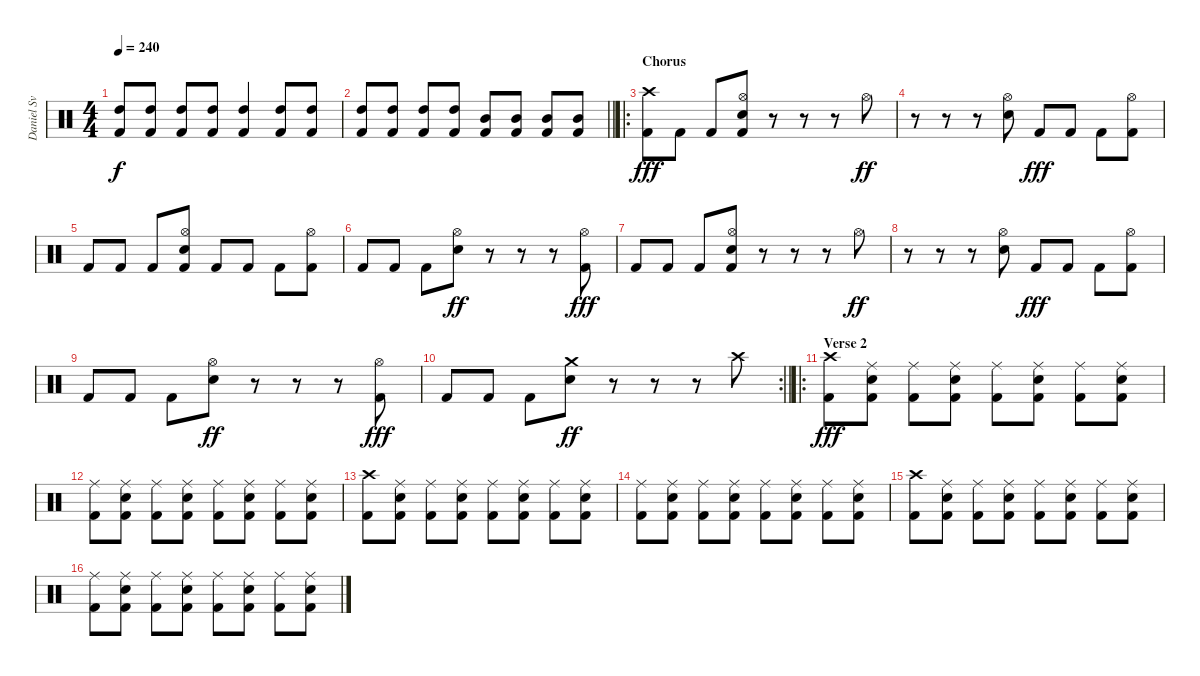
\track (" Daniel Svensson" " Daniel Sv") {instrument percussion}
\staff {score}
\articulation defaults
\ts (4 4)
\tempo 240
\clef neutral
\ks c
("High Tom (hit)" "Kick (hit) 2").8{dy f} ("High Tom (hit)" "Kick (hit) 2").8 ("High Tom (hit)" "Kick (hit) 2").8 ("High Tom (hit)" "Kick (hit) 2").8 ("High Tom (hit)" "Kick (hit) 2").4 ("High Tom (hit)" "Kick (hit) 2").8 ("High Tom (hit)" "Kick (hit) 2").8 |
\barLineRight lightlight
("High Tom (hit)" "Kick (hit) 2").8 ("High Tom (hit)" "Kick (hit) 2").8 ("High Tom (hit)" "Kick (hit) 2").8 ("High Tom (hit)" "Kick (hit) 2").8 ("Mid Tom (hit)" "Kick (hit) 2").8 ("Mid Tom (hit)" "Kick (hit) 2").8 ("Mid Tom (hit)" "Kick (hit) 2").8 ("Mid Tom (hit)" "Kick (hit) 2").8 |
\ro
\section ("" "Chorus")
("Crash high (hit)" "Kick (hit) 2").8{dy fff} "Kick (hit) 2".8 "Kick (hit) 2".8 ("Hi-Hat (open)" "Electric Snare (hit)" "Kick (hit) 2").8 r.8 r.8 r.8 "Hi-Hat (open)".8{dy ff} |
r.8 r.8 r.8 ("Hi-Hat (open)" "Electric Snare (hit)").8 "Kick (hit) 2".8{dy fff} "Kick (hit) 2".8 "Kick (hit) 2".8 ("Hi-Hat (open)" "Kick (hit) 2").8 |
"Kick (hit) 2".8 "Kick (hit) 2".8 "Kick (hit) 2".8 ("Hi-Hat (open)" "Electric Snare (hit)" "Kick (hit) 2").8 "Kick (hit) 2".8 "Kick (hit) 2".8 "Kick (hit) 2".8 ("Hi-Hat (open)" "Kick (hit) 2").8 |
"Kick (hit) 2".8 "Kick (hit) 2".8 "Kick (hit) 2".8 ("Hi-Hat (open)" "Electric Snare (hit)").8{dy ff} r.8 r.8 r.8 ("Hi-Hat (open)" "Kick (hit) 2").8{dy fff} |
"Kick (hit) 2".8 "Kick (hit) 2".8 "Kick (hit) 2".8 ("Hi-Hat (open)" "Electric Snare (hit)" "Kick (hit) 2").8 r.8 r.8 r.8 "Hi-Hat (open)".8{dy ff} |
r.8 r.8 r.8 ("Hi-Hat (open)" "Electric Snare (hit)").8 "Kick (hit) 2".8{dy fff} "Kick (hit) 2".8 "Kick (hit) 2".8 ("Hi-Hat (open)" "Kick (hit) 2").8 |
"Kick (hit) 2".8 "Kick (hit) 2".8 "Kick (hit) 2".8 ("Hi-Hat (open)" "Electric Snare (hit)").8{dy ff} r.8 r.8 r.8 ("Hi-Hat (open)" "Kick (hit) 2").8{dy fff} |
\rc 2
\barLineRight lightlight "Kick (hit) 2".8 "Kick (hit) 2".8 "Kick (hit) 2".8
("Crash medium (hit)" "Electric Snare (hit)").8{dy ff} r.8 r.8 r.8 "Crash high (hit)".8 |
\ro
\section ("" "Verse 2")
("Crash high (hit)" "Kick (hit) 2").8{dy fff} ("Ride (middle)" "Electric Snare (hit)" "Kick (hit) 2").8 ("Ride (middle)" "Kick (hit) 2").8 ("Ride (middle)" "Electric Snare (hit)" "Kick (hit) 2").8 ("Ride (middle)" "Kick (hit) 2").8 ("Ride (middle)" "Electric Snare (hit)" "Kick (hit) 2").8 ("Ride (middle)" "Kick (hit) 2").8 ("Ride (middle)" "Electric Snare (hit)" "Kick (hit) 2").8 |
("Ride (middle)" "Kick (hit) 2").8 ("Ride (middle)" "Electric Snare (hit)" "Kick (hit) 2").8 ("Ride (middle)" "Kick (hit) 2").8 ("Ride (middle)" "Electric Snare (hit)" "Kick (hit) 2").8 ("Ride (middle)" "Kick (hit) 2").8 ("Ride (middle)" "Electric Snare (hit)" "Kick (hit) 2").8 ("Ride (middle)" "Kick (hit) 2").8 ("Ride (middle)" "Electric Snare (hit)" "Kick (hit) 2").8 |
("Crash high (hit)" "Kick (hit) 2").8 ("Ride (middle)" "Electric Snare (hit)" "Kick (hit) 2").8 ("Ride (middle)" "Kick (hit) 2").8 ("Ride (middle)" "Electric Snare (hit)" "Kick (hit) 2").8 ("Ride (middle)" "Kick (hit) 2").8 ("Ride (middle)" "Electric Snare (hit)" "Kick (hit) 2").8 ("Ride (middle)" "Kick (hit) 2").8 ("Ride (middle)" "Electric Snare (hit)" "Kick (hit) 2").8 |
("Ride (middle)" "Kick (hit) 2").8 ("Ride (middle)" "Electric Snare (hit)" "Kick (hit) 2").8 ("Ride (middle)" "Kick (hit) 2").8 ("Ride (middle)" "Electric Snare (hit)" "Kick (hit) 2").8 ("Ride (middle)" "Kick (hit) 2").8 ("Ride (middle)" "Electric Snare (hit)" "Kick (hit) 2").8 ("Ride (middle)" "Kick (hit) 2").8 ("Ride (middle)" "Electric Snare (hit)" "Kick (hit) 2").8 |
("Crash high (hit)" "Kick (hit) 2").8 ("Ride (middle)" "Electric Snare (hit)" "Kick (hit) 2").8 ("Ride (middle)" "Kick (hit) 2").8 ("Ride (middle)" "Electric Snare (hit)" "Kick (hit) 2").8 ("Ride (middle)" "Kick (hit) 2").8 ("Ride (middle)" "Electric Snare (hit)" "Kick (hit) 2").8 ("Ride (middle)" "Kick (hit) 2").8 ("Ride (middle)" "Electric Snare (hit)" "Kick (hit) 2").8 |
("Ride (middle)" "Kick (hit) 2").8 ("Ride (middle)" "Electric Snare (hit)" "Kick (hit) 2").8 ("Ride (middle)" "Kick (hit) 2").8 ("Ride (middle)" "Electric Snare (hit)" "Kick (hit) 2").8 ("Ride (middle)" "Kick (hit) 2").8 ("Ride (middle)" "Electric Snare (hit)" "Kick (hit) 2").8 ("Ride (middle)" "Kick (hit) 2").8 ("Ride (middle)" "Electric Snare (hit)" "Kick (hit) 2").8
